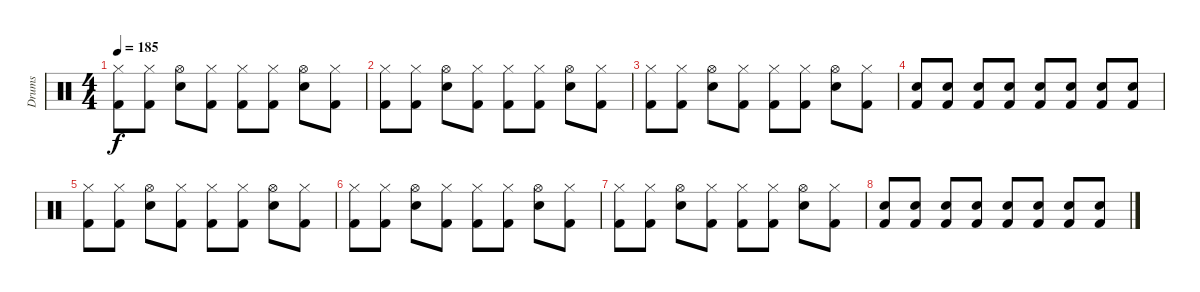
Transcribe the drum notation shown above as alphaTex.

\track ("Drums" "Drums") {instrument percussion}
\staff {score}
\articulation defaults
\ts (4 4)
\tempo 185
\clef neutral
\ks c
("Hi-Hat (closed)" "Kick (hit) 2").8{dy f} ("Hi-Hat (closed)" "Kick (hit) 2").8 ("Hi-Hat (open)" "Snare (hit) 2").8 ("Hi-Hat (closed)" "Kick (hit) 2").8 ("Hi-Hat (closed)" "Kick (hit) 2").8 ("Hi-Hat (closed)" "Kick (hit) 2").8 ("Hi-Hat (open)" "Snare (hit) 2").8 ("Hi-Hat (closed)" "Kick (hit) 2").8 |
("Hi-Hat (closed)" "Kick (hit) 2").8 ("Hi-Hat (closed)" "Kick (hit) 2").8 ("Hi-Hat (open)" "Snare (hit) 2").8 ("Hi-Hat (closed)" "Kick (hit) 2").8 ("Hi-Hat (closed)" "Kick (hit) 2").8 ("Hi-Hat (closed)" "Kick (hit) 2").8 ("Hi-Hat (open)" "Snare (hit) 2").8 ("Hi-Hat (closed)" "Kick (hit) 2").8 |
("Hi-Hat (closed)" "Kick (hit) 2").8 ("Hi-Hat (closed)" "Kick (hit) 2").8 ("Hi-Hat (open)" "Snare (hit) 2").8 ("Hi-Hat (closed)" "Kick (hit) 2").8 ("Hi-Hat (closed)" "Kick (hit) 2").8 ("Hi-Hat (closed)" "Kick (hit) 2").8 ("Hi-Hat (open)" "Snare (hit) 2").8 ("Hi-Hat (closed)" "Kick (hit) 2").8 |
("Snare (hit) 2" "Kick (hit) 2").8 ("Snare (hit) 2" "Kick (hit) 2").8 ("Snare (hit) 2" "Kick (hit) 2").8 ("Snare (hit) 2" "Kick (hit) 2").8 ("Snare (hit) 2" "Kick (hit) 2").8 ("Snare (hit) 2" "Kick (hit) 2").8 ("Snare (hit) 2" "Kick (hit) 2").8 ("Snare (hit) 2" "Kick (hit) 2").8 |
("Hi-Hat (closed)" "Kick (hit) 2").8 ("Hi-Hat (closed)" "Kick (hit) 2").8 ("Hi-Hat (open)" "Snare (hit) 2").8 ("Hi-Hat (closed)" "Kick (hit) 2").8 ("Hi-Hat (closed)" "Kick (hit) 2").8 ("Hi-Hat (closed)" "Kick (hit) 2").8 ("Hi-Hat (open)" "Snare (hit) 2").8 ("Hi-Hat (closed)" "Kick (hit) 2").8 |
("Hi-Hat (closed)" "Kick (hit) 2").8 ("Hi-Hat (closed)" "Kick (hit) 2").8 ("Hi-Hat (open)" "Snare (hit) 2").8 ("Hi-Hat (closed)" "Kick (hit) 2").8 ("Hi-Hat (closed)" "Kick (hit) 2").8 ("Hi-Hat (closed)" "Kick (hit) 2").8 ("Hi-Hat (open)" "Snare (hit) 2").8 ("Hi-Hat (closed)" "Kick (hit) 2").8 |
("Hi-Hat (closed)" "Kick (hit) 2").8 ("Hi-Hat (closed)" "Kick (hit) 2").8 ("Hi-Hat (open)" "Snare (hit) 2").8 ("Hi-Hat (closed)" "Kick (hit) 2").8 ("Hi-Hat (closed)" "Kick (hit) 2").8 ("Hi-Hat (closed)" "Kick (hit) 2").8 ("Hi-Hat (open)" "Snare (hit) 2").8 ("Hi-Hat (closed)" "Kick (hit) 2").8 |
("Snare (hit) 2" "Kick (hit) 2").8 ("Snare (hit) 2" "Kick (hit) 2").8 ("Snare (hit) 2" "Kick (hit) 2").8 ("Snare (hit) 2" "Kick (hit) 2").8 ("Snare (hit) 2" "Kick (hit) 2").8 ("Snare (hit) 2" "Kick (hit) 2").8 ("Snare (hit) 2" "Kick (hit) 2").8 ("Snare (hit) 2" "Kick (hit) 2").8
